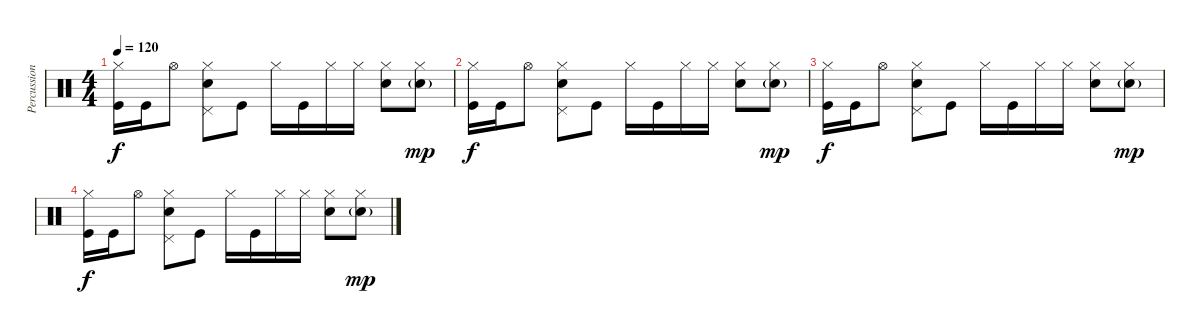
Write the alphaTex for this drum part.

\track ("Percussion" "Percussion") {instrument percussion}
\staff {score}
\articulation defaults
\ts (4 4)
\tempo 120
\clef neutral
\ks c
("Hi-Hat (closed)" "Kick (hit)").16{dy f} "Kick (hit)".16 "Hi-Hat (open)".8 ("Pedal Hi-Hat (hit)" "Hi-Hat (closed)" "Snare (hit) 2").8 "Kick (hit)".8 "Hi-Hat (closed)".16 "Kick (hit)".16 "Hi-Hat (closed)".16 "Hi-Hat (closed)".16 ("Hi-Hat (closed)" "Snare (hit) 2").8 ("Hi-Hat (closed)" "Snare (hit) 2"{g}).8{dy mp} |
("Hi-Hat (closed)" "Kick (hit)").16{dy f} "Kick (hit)".16 "Hi-Hat (open)".8 ("Pedal Hi-Hat (hit)" "Hi-Hat (closed)" "Snare (hit) 2").8 "Kick (hit)".8 "Hi-Hat (closed)".16 "Kick (hit)".16 "Hi-Hat (closed)".16 "Hi-Hat (closed)".16 ("Hi-Hat (closed)" "Snare (hit) 2").8 ("Hi-Hat (closed)" "Snare (hit) 2"{g}).8{dy mp} |
("Hi-Hat (closed)" "Kick (hit)").16{dy f} "Kick (hit)".16 "Hi-Hat (open)".8 ("Pedal Hi-Hat (hit)" "Hi-Hat (closed)" "Snare (hit) 2").8 "Kick (hit)".8 "Hi-Hat (closed)".16 "Kick (hit)".16 "Hi-Hat (closed)".16 "Hi-Hat (closed)".16 ("Hi-Hat (closed)" "Snare (hit) 2").8 ("Hi-Hat (closed)" "Snare (hit) 2"{g}).8{dy mp} |
("Hi-Hat (closed)" "Kick (hit)").16{dy f} "Kick (hit)".16 "Hi-Hat (open)".8 ("Pedal Hi-Hat (hit)" "Hi-Hat (closed)" "Snare (hit) 2").8 "Kick (hit)".8 "Hi-Hat (closed)".16 "Kick (hit)".16 "Hi-Hat (closed)".16 "Hi-Hat (closed)".16 ("Hi-Hat (closed)" "Snare (hit) 2").8 ("Hi-Hat (closed)" "Snare (hit) 2"{g}).8{dy mp}
